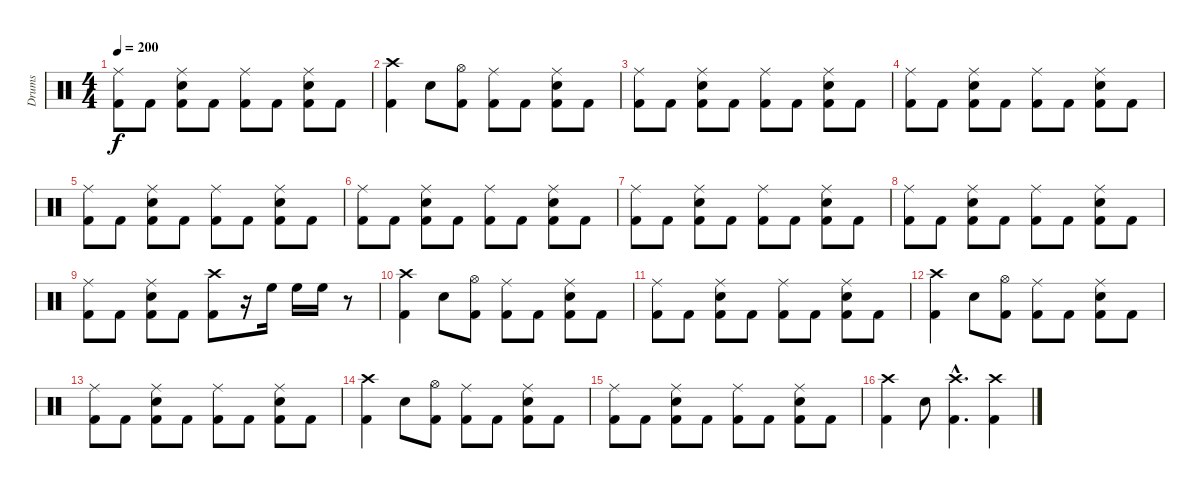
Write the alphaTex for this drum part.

\track ("Drums" "Drums") {instrument percussion}
\staff {score}
\articulation defaults
\ts (4 4)
\tempo 200
\clef neutral
\ks c
("Ride (middle)" "Kick (hit) 2").8{dy f} "Kick (hit) 2".8 ("Ride (middle)" "Snare (hit) 2" "Kick (hit) 2").8 "Kick (hit) 2".8 ("Ride (middle)" "Kick (hit) 2").8 "Kick (hit) 2".8 ("Ride (middle)" "Snare (hit) 2" "Kick (hit) 2").8 "Kick (hit) 2".8 |
("Crash high (hit)" "Kick (hit) 2").4 "Snare (hit) 2".8 ("Hi-Hat (open)" "Kick (hit) 2").8 ("Ride (middle)" "Kick (hit) 2").8 "Kick (hit) 2".8 ("Ride (middle)" "Snare (hit) 2" "Kick (hit) 2").8 "Kick (hit) 2".8 |
("Ride (middle)" "Kick (hit) 2").8 "Kick (hit) 2".8 ("Ride (middle)" "Snare (hit) 2" "Kick (hit) 2").8 "Kick (hit) 2".8 ("Ride (middle)" "Kick (hit) 2").8 "Kick (hit) 2".8 ("Ride (middle)" "Snare (hit) 2" "Kick (hit) 2").8 "Kick (hit) 2".8 |
("Ride (middle)" "Kick (hit) 2").8 "Kick (hit) 2".8 ("Ride (middle)" "Snare (hit) 2" "Kick (hit) 2").8 "Kick (hit) 2".8 ("Ride (middle)" "Kick (hit) 2").8 "Kick (hit) 2".8 ("Ride (middle)" "Snare (hit) 2" "Kick (hit) 2").8 "Kick (hit) 2".8 |
("Ride (middle)" "Kick (hit) 2").8 "Kick (hit) 2".8 ("Ride (middle)" "Snare (hit) 2" "Kick (hit) 2").8 "Kick (hit) 2".8 ("Ride (middle)" "Kick (hit) 2").8 "Kick (hit) 2".8 ("Ride (middle)" "Snare (hit) 2" "Kick (hit) 2").8 "Kick (hit) 2".8 |
("Ride (middle)" "Kick (hit) 2").8 "Kick (hit) 2".8 ("Ride (middle)" "Snare (hit) 2" "Kick (hit) 2").8 "Kick (hit) 2".8 ("Ride (middle)" "Kick (hit) 2").8 "Kick (hit) 2".8 ("Ride (middle)" "Snare (hit) 2" "Kick (hit) 2").8 "Kick (hit) 2".8 |
("Ride (middle)" "Kick (hit) 2").8 "Kick (hit) 2".8 ("Ride (middle)" "Snare (hit) 2" "Kick (hit) 2").8 "Kick (hit) 2".8 ("Ride (middle)" "Kick (hit) 2").8 "Kick (hit) 2".8 ("Ride (middle)" "Snare (hit) 2" "Kick (hit) 2").8 "Kick (hit) 2".8 |
("Ride (middle)" "Kick (hit) 2").8 "Kick (hit) 2".8 ("Ride (middle)" "Snare (hit) 2" "Kick (hit) 2").8 "Kick (hit) 2".8 ("Ride (middle)" "Kick (hit) 2").8 "Kick (hit) 2".8 ("Ride (middle)" "Snare (hit) 2" "Kick (hit) 2").8 "Kick (hit) 2".8 |
("Ride (middle)" "Kick (hit) 2").8 "Kick (hit) 2".8 ("Ride (middle)" "Snare (hit) 2" "Kick (hit) 2").8 "Kick (hit) 2".8 ("Crash high (hit)" "Kick (hit) 2").8 r.16 "High Floor Tom (hit)".16 "High Floor Tom (hit)".16 "High Floor Tom (hit)".16 r.8 |
("Crash high (hit)" "Kick (hit) 2").4 "Snare (hit) 2".8 ("Hi-Hat (open)" "Kick (hit) 2").8 ("Ride (middle)" "Kick (hit) 2").8 "Kick (hit) 2".8 ("Ride (middle)" "Snare (hit) 2" "Kick (hit) 2").8 "Kick (hit) 2".8 |
("Ride (middle)" "Kick (hit) 2").8 "Kick (hit) 2".8 ("Ride (middle)" "Snare (hit) 2" "Kick (hit) 2").8 "Kick (hit) 2".8 ("Ride (middle)" "Kick (hit) 2").8 "Kick (hit) 2".8 ("Ride (middle)" "Snare (hit) 2" "Kick (hit) 2").8 "Kick (hit) 2".8 |
("Crash high (hit)" "Kick (hit) 2").4 "Snare (hit) 2".8 ("Hi-Hat (open)" "Kick (hit) 2").8 ("Ride (middle)" "Kick (hit) 2").8 "Kick (hit) 2".8 ("Ride (middle)" "Snare (hit) 2" "Kick (hit) 2").8 "Kick (hit) 2".8 |
("Ride (middle)" "Kick (hit) 2").8 "Kick (hit) 2".8 ("Ride (middle)" "Snare (hit) 2" "Kick (hit) 2").8 "Kick (hit) 2".8 ("Ride (middle)" "Kick (hit) 2").8 "Kick (hit) 2".8 ("Ride (middle)" "Snare (hit) 2" "Kick (hit) 2").8 "Kick (hit) 2".8 |
("Crash high (hit)" "Kick (hit) 2").4 "Snare (hit) 2".8 ("Hi-Hat (open)" "Kick (hit) 2").8 ("Ride (middle)" "Kick (hit) 2").8 "Kick (hit) 2".8 ("Ride (middle)" "Snare (hit) 2" "Kick (hit) 2").8 "Kick (hit) 2".8 |
("Ride (middle)" "Kick (hit) 2").8 "Kick (hit) 2".8 ("Ride (middle)" "Snare (hit) 2" "Kick (hit) 2").8 "Kick (hit) 2".8 ("Ride (middle)" "Kick (hit) 2").8 "Kick (hit) 2".8 ("Ride (middle)" "Snare (hit) 2" "Kick (hit) 2").8 "Kick (hit) 2".8 |
("Crash high (hit)" "Kick (hit) 2").4 "Snare (hit) 2".8 ("Crash high (hit)"{hac} "Kick (hit) 2"{hac}).4{d} ("Crash high (hit)" "Kick (hit) 2").4
